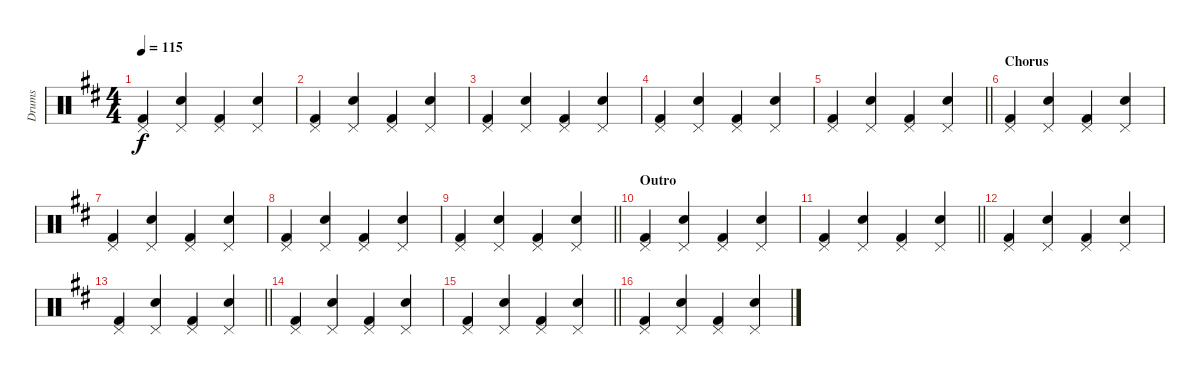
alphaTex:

\track ("Drums" "Drums") {instrument percussion}
\staff {score}
\articulation defaults
\ts (4 4)
\tempo 115
\clef neutral
\ks d
("Kick (hit) 2" "Pedal Hi-Hat (hit)").4{dy f} ("Snare (hit) 2" "Pedal Hi-Hat (hit)").4 ("Kick (hit) 2" "Pedal Hi-Hat (hit)").4 ("Snare (hit) 2" "Pedal Hi-Hat (hit)").4 |
("Kick (hit) 2" "Pedal Hi-Hat (hit)").4 ("Snare (hit) 2" "Pedal Hi-Hat (hit)").4 ("Kick (hit) 2" "Pedal Hi-Hat (hit)").4 ("Snare (hit) 2" "Pedal Hi-Hat (hit)").4 |
("Kick (hit) 2" "Pedal Hi-Hat (hit)").4 ("Snare (hit) 2" "Pedal Hi-Hat (hit)").4 ("Kick (hit) 2" "Pedal Hi-Hat (hit)").4 ("Snare (hit) 2" "Pedal Hi-Hat (hit)").4 |
("Kick (hit) 2" "Pedal Hi-Hat (hit)").4 ("Snare (hit) 2" "Pedal Hi-Hat (hit)").4 ("Kick (hit) 2" "Pedal Hi-Hat (hit)").4 ("Snare (hit) 2" "Pedal Hi-Hat (hit)").4 |
\barLineRight lightlight
("Kick (hit) 2" "Pedal Hi-Hat (hit)").4 ("Snare (hit) 2" "Pedal Hi-Hat (hit)").4 ("Kick (hit) 2" "Pedal Hi-Hat (hit)").4 ("Snare (hit) 2" "Pedal Hi-Hat (hit)").4 |
\section ("" "Chorus")
("Kick (hit) 2" "Pedal Hi-Hat (hit)").4 ("Snare (hit) 2" "Pedal Hi-Hat (hit)").4 ("Kick (hit) 2" "Pedal Hi-Hat (hit)").4 ("Snare (hit) 2" "Pedal Hi-Hat (hit)").4 |
("Kick (hit) 2" "Pedal Hi-Hat (hit)").4 ("Snare (hit) 2" "Pedal Hi-Hat (hit)").4 ("Kick (hit) 2" "Pedal Hi-Hat (hit)").4 ("Snare (hit) 2" "Pedal Hi-Hat (hit)").4 |
("Kick (hit) 2" "Pedal Hi-Hat (hit)").4 ("Snare (hit) 2" "Pedal Hi-Hat (hit)").4 ("Kick (hit) 2" "Pedal Hi-Hat (hit)").4 ("Snare (hit) 2" "Pedal Hi-Hat (hit)").4 |
\barLineRight lightlight
("Kick (hit) 2" "Pedal Hi-Hat (hit)").4 ("Snare (hit) 2" "Pedal Hi-Hat (hit)").4 ("Kick (hit) 2" "Pedal Hi-Hat (hit)").4 ("Snare (hit) 2" "Pedal Hi-Hat (hit)").4 |
\section ("" "Outro")
("Kick (hit) 2" "Pedal Hi-Hat (hit)").4 ("Snare (hit) 2" "Pedal Hi-Hat (hit)").4 ("Kick (hit) 2" "Pedal Hi-Hat (hit)").4 ("Snare (hit) 2" "Pedal Hi-Hat (hit)").4 |
\barLineRight lightlight
("Kick (hit) 2" "Pedal Hi-Hat (hit)").4 ("Snare (hit) 2" "Pedal Hi-Hat (hit)").4 ("Kick (hit) 2" "Pedal Hi-Hat (hit)").4 ("Snare (hit) 2" "Pedal Hi-Hat (hit)").4 |
("Kick (hit) 2" "Pedal Hi-Hat (hit)").4 ("Snare (hit) 2" "Pedal Hi-Hat (hit)").4 ("Kick (hit) 2" "Pedal Hi-Hat (hit)").4 ("Snare (hit) 2" "Pedal Hi-Hat (hit)").4 |
\barLineRight lightlight
("Kick (hit) 2" "Pedal Hi-Hat (hit)").4 ("Snare (hit) 2" "Pedal Hi-Hat (hit)").4 ("Kick (hit) 2" "Pedal Hi-Hat (hit)").4 ("Snare (hit) 2" "Pedal Hi-Hat (hit)").4 |
("Kick (hit) 2" "Pedal Hi-Hat (hit)").4 ("Snare (hit) 2" "Pedal Hi-Hat (hit)").4 ("Kick (hit) 2" "Pedal Hi-Hat (hit)").4 ("Snare (hit) 2" "Pedal Hi-Hat (hit)").4 |
\barLineRight lightlight
("Kick (hit) 2" "Pedal Hi-Hat (hit)").4 ("Snare (hit) 2" "Pedal Hi-Hat (hit)").4 ("Kick (hit) 2" "Pedal Hi-Hat (hit)").4 ("Snare (hit) 2" "Pedal Hi-Hat (hit)").4 |
("Kick (hit) 2" "Pedal Hi-Hat (hit)").4 ("Snare (hit) 2" "Pedal Hi-Hat (hit)").4 ("Kick (hit) 2" "Pedal Hi-Hat (hit)").4 ("Snare (hit) 2" "Pedal Hi-Hat (hit)").4
